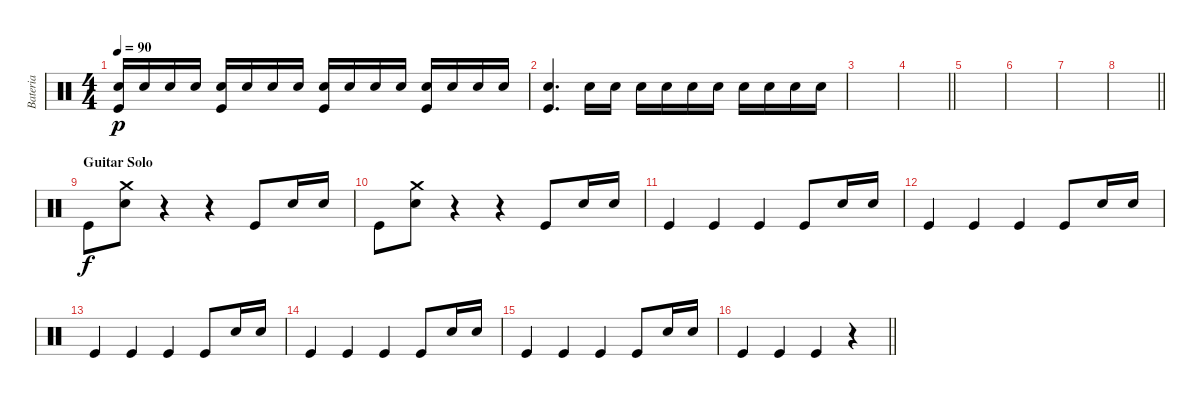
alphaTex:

\track ("Bateria" "Bateria") {instrument percussion}
\staff {score}
\articulation defaults
\ts (4 4)
\tempo 90
\clef neutral
\ks c
("Snare (hit) 2" "Kick (hit)").16{dy p} "Snare (hit) 2".16 "Snare (hit) 2".16 "Snare (hit) 2".16 ("Snare (hit) 2" "Kick (hit)").16 "Snare (hit) 2".16 "Snare (hit) 2".16 "Snare (hit) 2".16 ("Snare (hit) 2" "Kick (hit)").16 "Snare (hit) 2".16 "Snare (hit) 2".16 "Snare (hit) 2".16 ("Snare (hit) 2" "Kick (hit)").16 "Snare (hit) 2".16 "Snare (hit) 2".16 "Snare (hit) 2".16 |
("Snare (hit) 2" "Kick (hit)").4{d} "Snare (hit) 2".16 "Snare (hit) 2".16 "Snare (hit) 2".16 "Snare (hit) 2".16 "Snare (hit) 2".16 "Snare (hit) 2".16 "Snare (hit) 2".16 "Snare (hit) 2".16 "Snare (hit) 2".16 "Snare (hit) 2".16 |
|
\barLineRight lightlight
|
|
|
|
\barLineRight lightlight
|
\section ("" "Guitar Solo")
"Kick (hit)".8{dy f} ("Crash medium (hit)" "Snare (hit) 2").8 r.4 r.4 "Kick (hit)".8 "Snare (hit) 2".16 "Snare (hit) 2".16 |
"Kick (hit)".8 ("Crash medium (hit)" "Snare (hit) 2").8 r.4 r.4 "Kick (hit)".8 "Snare (hit) 2".16 "Snare (hit) 2".16 |
"Kick (hit)".4 "Kick (hit)".4 "Kick (hit)".4 "Kick (hit)".8 "Snare (hit) 2".16 "Snare (hit) 2".16 |
"Kick (hit)".4 "Kick (hit)".4 "Kick (hit)".4 "Kick (hit)".8 "Snare (hit) 2".16 "Snare (hit) 2".16 |
"Kick (hit)".4 "Kick (hit)".4 "Kick (hit)".4 "Kick (hit)".8 "Snare (hit) 2".16 "Snare (hit) 2".16 |
"Kick (hit)".4 "Kick (hit)".4 "Kick (hit)".4 "Kick (hit)".8 "Snare (hit) 2".16 "Snare (hit) 2".16 |
"Kick (hit)".4 "Kick (hit)".4 "Kick (hit)".4 "Kick (hit)".8 "Snare (hit) 2".16 "Snare (hit) 2".16 |
\barLineRight lightlight "Kick (hit)".4 "Kick (hit)".4 "Kick (hit)".4
r.4
